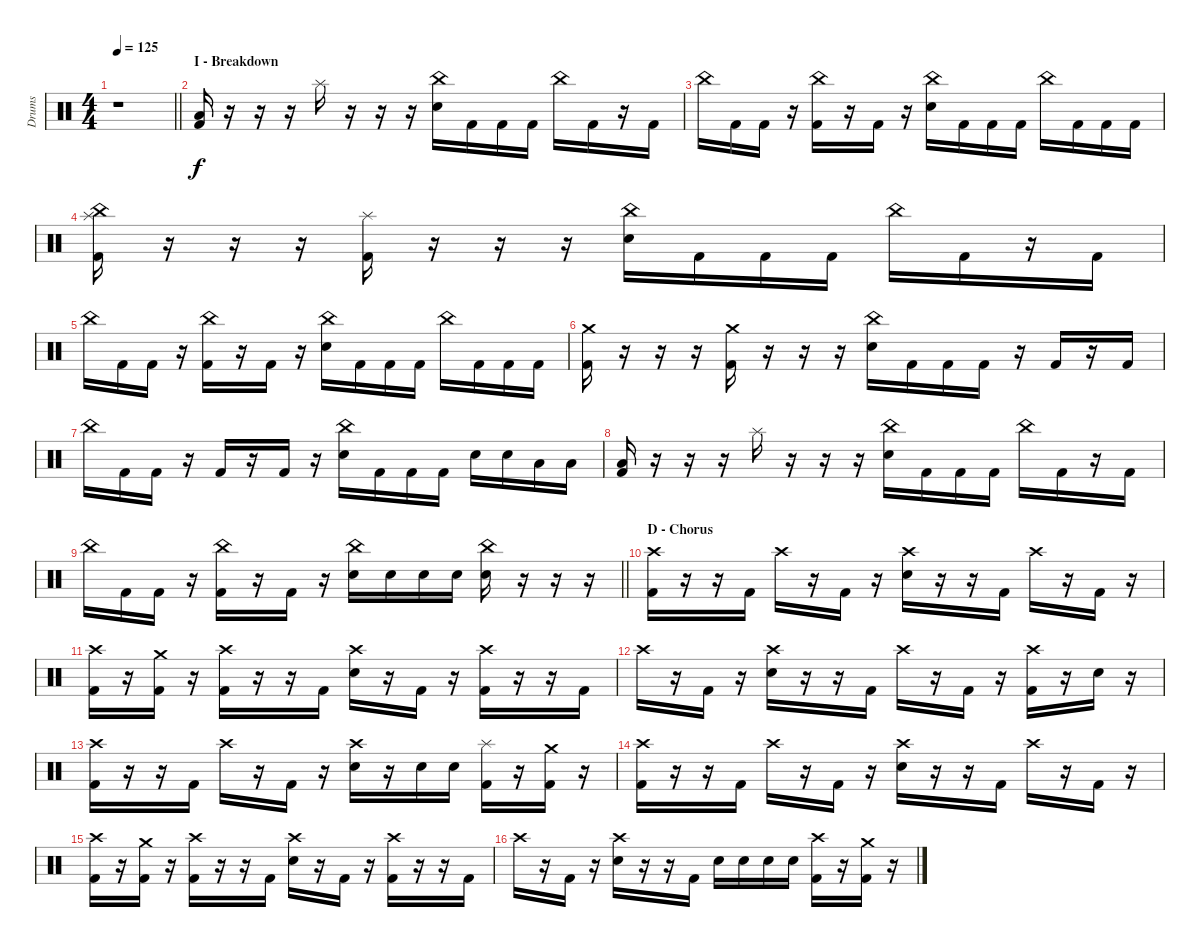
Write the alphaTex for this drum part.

\track ("Drums" "Drums") {instrument percussion}
\staff {score}
\articulation defaults
\ts (4 4)
\tempo 125
\clef neutral
\barLineRight lightlight
\ks c
r.1{dy f} |
\section ("" "I - Breakdown")
("Low Tom (hit)" "Kick (hit) 2").16 r.16 r.16 r.16 "Splash (hit)".16 r.16 r.16 r.16 ("China (hit)" "Electric Snare (hit)").16 "Kick (hit) 2".16 "Kick (hit) 2".16 "Kick (hit) 2".16 "China (hit)".16 "Kick (hit) 2".16 r.16 "Kick (hit) 2".16 |
"China (hit)".16 "Kick (hit) 2".16 "Kick (hit) 2".16 r.16 ("China (hit)" "Kick (hit) 2").16 r.16 "Kick (hit) 2".16 r.16 ("China (hit)" "Electric Snare (hit)").16 "Kick (hit) 2".16 "Kick (hit) 2".16 "Kick (hit) 2".16 "China (hit)".16 "Kick (hit) 2".16 "Kick (hit) 2".16 "Kick (hit) 2".16 |
("China (hit)" "Splash (hit)" "Kick (hit) 2").16 r.16 r.16 r.16 ("Splash (hit)" "Kick (hit) 2").16 r.16 r.16 r.16 ("China (hit)" "Electric Snare (hit)").16 "Kick (hit) 2".16 "Kick (hit) 2".16 "Kick (hit) 2".16 "China (hit)".16 "Kick (hit) 2".16 r.16 "Kick (hit) 2".16 |
"China (hit)".16 "Kick (hit) 2".16 "Kick (hit) 2".16 r.16 ("China (hit)" "Kick (hit) 2").16 r.16 "Kick (hit) 2".16 r.16 ("China (hit)" "Electric Snare (hit)").16 "Kick (hit) 2".16 "Kick (hit) 2".16 "Kick (hit) 2".16 "China (hit)".16 "Kick (hit) 2".16 "Kick (hit) 2".16 "Kick (hit) 2".16 |
("Crash medium (hit)" "Kick (hit) 2").16 r.16 r.16 r.16 ("Crash medium (hit)" "Kick (hit) 2").16 r.16 r.16 r.16 ("China (hit)" "Electric Snare (hit)").16 "Kick (hit) 2".16 "Kick (hit) 2".16 "Kick (hit) 2".16 r.16 "Kick (hit) 2".16 r.16 "Kick (hit) 2".16 |
"China (hit)".16 "Kick (hit) 2".16 "Kick (hit) 2".16 r.16 "Kick (hit) 2".16 r.16 "Kick (hit) 2".16 r.16 ("China (hit)" "Electric Snare (hit)").16 "Kick (hit) 2".16 "Kick (hit) 2".16 "Kick (hit) 2".16 "Electric Snare (hit)".16 "Electric Snare (hit)".16 "Low Tom (hit)".16 "Low Tom (hit)".16 |
("Low Tom (hit)" "Kick (hit) 2").16 r.16 r.16 r.16 "Splash (hit)".16 r.16 r.16 r.16 ("China (hit)" "Electric Snare (hit)").16 "Kick (hit) 2".16 "Kick (hit) 2".16 "Kick (hit) 2".16 "China (hit)".16 "Kick (hit) 2".16 r.16 "Kick (hit) 2".16 |
\barLineRight lightlight "China (hit)".16 "Kick (hit) 2".16 "Kick (hit) 2".16
r.16 ("China (hit)" "Kick (hit) 2").16 r.16 "Kick (hit) 2".16 r.16 ("China (hit)" "Electric Snare (hit)").16 "Electric Snare (hit)".16 "Electric Snare (hit)".16 "Electric Snare (hit)".16 ("China (hit)" "Electric Snare (hit)").16 r.16 r.16 r.16 |
\section ("" "D - Chorus")
("Crash high (hit)" "Kick (hit) 2").16 r.16 r.16 "Kick (hit) 2".16 "Crash high (hit)".16 r.16 "Kick (hit) 2".16 r.16 ("Crash high (hit)" "Electric Snare (hit)").16 r.16 r.16 "Kick (hit) 2".16 "Crash high (hit)".16 r.16 "Kick (hit) 2".16 r.16 |
("Crash high (hit)" "Kick (hit) 2").16 r.16 ("Crash medium (hit)" "Kick (hit) 2").16 r.16 ("Crash high (hit)" "Kick (hit) 2").16 r.16 r.16 "Kick (hit) 2".16 ("Crash high (hit)" "Electric Snare (hit)").16 r.16 "Kick (hit) 2".16 r.16 ("Crash high (hit)" "Kick (hit) 2").16 r.16 r.16 "Kick (hit) 2".16 |
"Crash high (hit)".16 r.16 "Kick (hit) 2".16 r.16 ("Crash high (hit)" "Electric Snare (hit)").16 r.16 r.16 "Kick (hit) 2".16 "Crash high (hit)".16 r.16 "Kick (hit) 2".16 r.16 ("Crash high (hit)" "Kick (hit) 2").16 r.16 "Electric Snare (hit)".16 r.16 |
("Crash high (hit)" "Kick (hit) 2").16 r.16 r.16 "Kick (hit) 2".16 "Crash high (hit)".16 r.16 "Kick (hit) 2".16 r.16 ("Crash high (hit)" "Electric Snare (hit)").16 r.16 "Electric Snare (hit)".16 "Electric Snare (hit)".16 ("Splash (hit)" "Kick (hit) 2").16 r.16 ("Crash medium (hit)" "Kick (hit) 2").16 r.16 |
("Crash high (hit)" "Kick (hit) 2").16 r.16 r.16 "Kick (hit) 2".16 "Crash high (hit)".16 r.16 "Kick (hit) 2".16 r.16 ("Crash high (hit)" "Electric Snare (hit)").16 r.16 r.16 "Kick (hit) 2".16 "Crash high (hit)".16 r.16 "Kick (hit) 2".16 r.16 |
("Crash high (hit)" "Kick (hit) 2").16 r.16 ("Crash medium (hit)" "Kick (hit) 2").16 r.16 ("Crash high (hit)" "Kick (hit) 2").16 r.16 r.16 "Kick (hit) 2".16 ("Crash high (hit)" "Electric Snare (hit)").16 r.16 "Kick (hit) 2".16 r.16 ("Crash high (hit)" "Kick (hit) 2").16 r.16 r.16 "Kick (hit) 2".16 |
"Crash high (hit)".16 r.16 "Kick (hit) 2".16 r.16 ("Crash high (hit)" "Electric Snare (hit)").16 r.16 r.16 "Kick (hit) 2".16 "Electric Snare (hit)".16 "Electric Snare (hit)".16 "Electric Snare (hit)".16 "Electric Snare (hit)".16 ("Crash high (hit)" "Kick (hit) 2").16 r.16 ("Crash medium (hit)" "Kick (hit) 2").16 r.16
